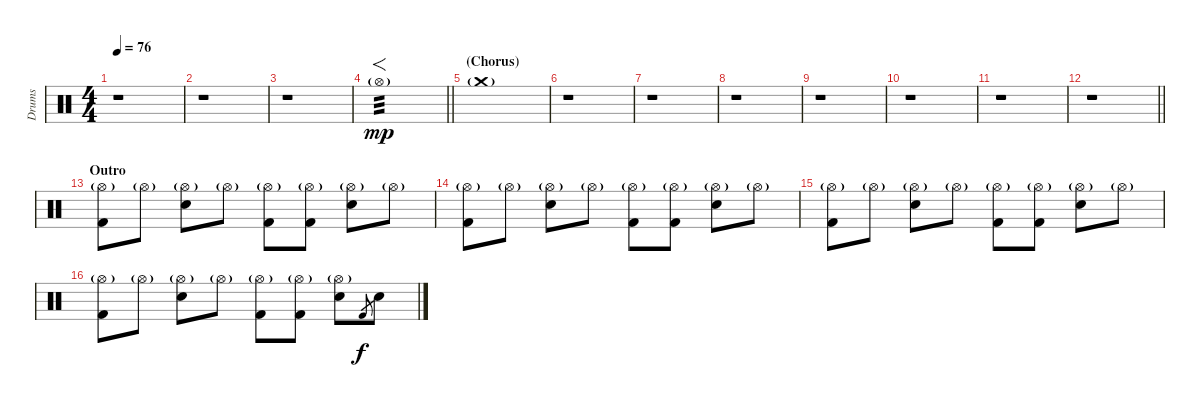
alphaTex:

\track ("Drums" "Drums") {instrument percussion}
\staff {score}
\articulation defaults
\ts (4 4)
\tempo 76
\clef neutral
\ks c
r.1{dy mp} |
r.1 |
r.1 |
\barLineRight lightlight "Hi-Hat (open)"{g}.1{f tp 3}
|
\section ("" "(Chorus)")
"Crash medium (hit)"{g}.1 |
r.1 |
r.1 |
r.1 |
r.1 |
r.1 |
r.1 |
\barLineRight lightlight
r.1 |
\section ("" "Outro")
("Kick (hit) 2" "Hi-Hat (open)"{g}).8 "Hi-Hat (open)"{g}.8 ("Electric Snare (hit)" "Hi-Hat (open)"{g}).8 "Hi-Hat (open)"{g}.8 ("Kick (hit) 2" "Hi-Hat (open)"{g}).8 ("Kick (hit) 2" "Hi-Hat (open)"{g}).8 ("Electric Snare (hit)" "Hi-Hat (open)"{g}).8 "Hi-Hat (open)"{g}.8 |
("Kick (hit) 2" "Hi-Hat (open)"{g}).8 "Hi-Hat (open)"{g}.8 ("Electric Snare (hit)" "Hi-Hat (open)"{g}).8 "Hi-Hat (open)"{g}.8 ("Kick (hit) 2" "Hi-Hat (open)"{g}).8 ("Kick (hit) 2" "Hi-Hat (open)"{g}).8 ("Electric Snare (hit)" "Hi-Hat (open)"{g}).8 "Hi-Hat (open)"{g}.8 |
("Kick (hit) 2" "Hi-Hat (open)"{g}).8 "Hi-Hat (open)"{g}.8 ("Electric Snare (hit)" "Hi-Hat (open)"{g}).8 "Hi-Hat (open)"{g}.8 ("Kick (hit) 2" "Hi-Hat (open)"{g}).8 ("Kick (hit) 2" "Hi-Hat (open)"{g}).8 ("Electric Snare (hit)" "Hi-Hat (open)"{g}).8 "Hi-Hat (open)"{g}.8 |
("Kick (hit) 2" "Hi-Hat (open)"{g}).8 "Hi-Hat (open)"{g}.8 ("Electric Snare (hit)" "Hi-Hat (open)"{g}).8 "Hi-Hat (open)"{g}.8 ("Kick (hit) 2" "Hi-Hat (open)"{g}).8 ("Kick (hit) 2" "Hi-Hat (open)"{g}).8 ("Electric Snare (hit)" "Hi-Hat (open)"{g}).8 "Kick (hit) 2".8{gr dy f} "Electric Snare (hit)".8
